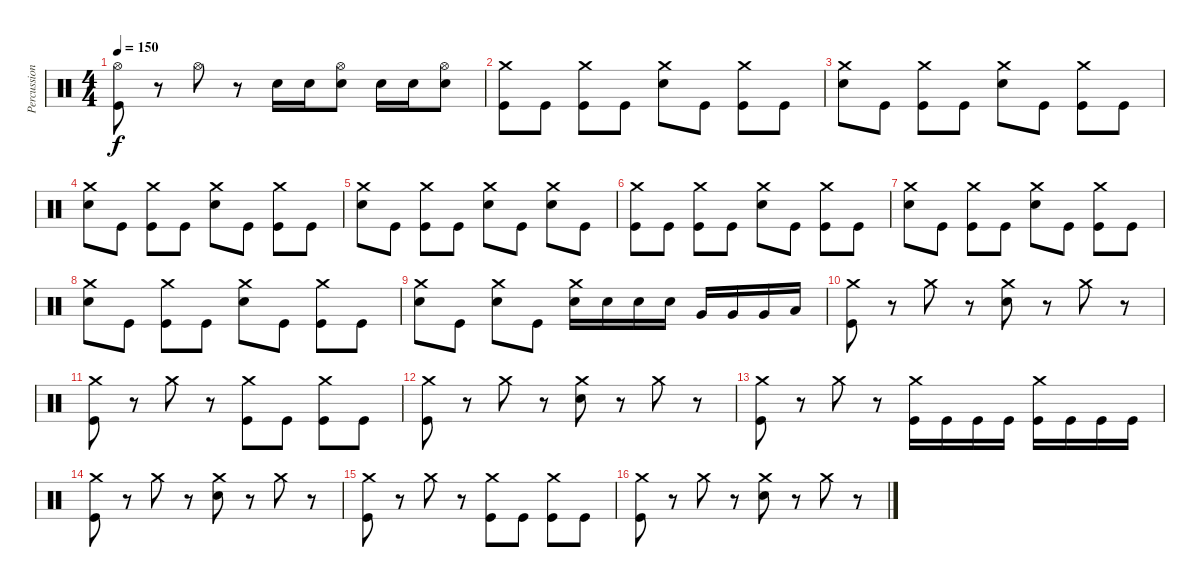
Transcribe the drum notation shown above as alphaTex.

\track ("Percussion" "Percussion") {instrument percussion}
\staff {score}
\articulation defaults
\ts (4 4)
\tempo 150
\clef neutral
\ks c
("Hi-Hat (open)" "Kick (hit)").8{dy f} r.8 "Hi-Hat (open)".8 r.8 "Snare (hit) 2".16 "Snare (hit) 2".16 ("Hi-Hat (open)" "Snare (hit) 2").8 "Snare (hit) 2".16 "Snare (hit) 2".16 ("Hi-Hat (open)" "Snare (hit) 2").8 |
("Crash medium (hit)" "Kick (hit)").8 "Kick (hit)".8 ("Crash medium (hit)" "Kick (hit)").8 "Kick (hit)".8 ("Crash medium (hit)" "Snare (hit) 2").8 "Kick (hit)".8 ("Crash medium (hit)" "Kick (hit)").8 "Kick (hit)".8 |
("Crash medium (hit)" "Snare (hit) 2").8 "Kick (hit)".8 ("Crash medium (hit)" "Kick (hit)").8 "Kick (hit)".8 ("Crash medium (hit)" "Snare (hit) 2").8 "Kick (hit)".8 ("Crash medium (hit)" "Kick (hit)").8 "Kick (hit)".8 |
("Crash medium (hit)" "Snare (hit) 2").8 "Kick (hit)".8 ("Crash medium (hit)" "Kick (hit)").8 "Kick (hit)".8 ("Crash medium (hit)" "Snare (hit) 2").8 "Kick (hit)".8 ("Crash medium (hit)" "Kick (hit)").8 "Kick (hit)".8 |
("Crash medium (hit)" "Snare (hit) 2").8 "Kick (hit)".8 ("Crash medium (hit)" "Kick (hit)").8 "Kick (hit)".8 ("Crash medium (hit)" "Snare (hit) 2").8 "Kick (hit)".8 ("Crash medium (hit)" "Snare (hit) 2").8 "Kick (hit)".8 |
("Crash medium (hit)" "Kick (hit)").8 "Kick (hit)".8 ("Crash medium (hit)" "Kick (hit)").8 "Kick (hit)".8 ("Crash medium (hit)" "Snare (hit) 2").8 "Kick (hit)".8 ("Crash medium (hit)" "Kick (hit)").8 "Kick (hit)".8 |
("Crash medium (hit)" "Snare (hit) 2").8 "Kick (hit)".8 ("Crash medium (hit)" "Kick (hit)").8 "Kick (hit)".8 ("Crash medium (hit)" "Snare (hit) 2").8 "Kick (hit)".8 ("Crash medium (hit)" "Kick (hit)").8 "Kick (hit)".8 |
("Crash medium (hit)" "Snare (hit) 2").8 "Kick (hit)".8 ("Crash medium (hit)" "Kick (hit)").8 "Kick (hit)".8 ("Crash medium (hit)" "Snare (hit) 2").8 "Kick (hit)".8 ("Crash medium (hit)" "Kick (hit)").8 "Kick (hit)".8 |
("Crash medium (hit)" "Snare (hit) 2").8 "Kick (hit)".8 ("Crash medium (hit)" "Snare (hit) 2").8 "Kick (hit)".8 ("Crash medium (hit)" "Snare (hit) 2").16 "Snare (hit) 2".16 "Snare (hit) 2".16 "Snare (hit) 2".16 "Very Low Tom (hit)".16 "Very Low Tom (hit)".16 "Very Low Tom (hit)".16 "Low Floor Tom (hit)".16 |
("Crash medium (hit)" "Kick (hit)").8 r.8 "Crash medium (hit)".8 r.8 ("Crash medium (hit)" "Snare (hit) 2").8 r.8 "Crash medium (hit)".8 r.8 |
("Crash medium (hit)" "Kick (hit)").8 r.8 "Crash medium (hit)".8 r.8 ("Crash medium (hit)" "Kick (hit)").8 "Kick (hit)".8 ("Crash medium (hit)" "Kick (hit)").8 "Kick (hit)".8 |
("Crash medium (hit)" "Kick (hit)").8 r.8 "Crash medium (hit)".8 r.8 ("Crash medium (hit)" "Snare (hit) 2").8 r.8 "Crash medium (hit)".8 r.8 |
("Crash medium (hit)" "Kick (hit)").8 r.8 "Crash medium (hit)".8 r.8 ("Crash medium (hit)" "Kick (hit)").16 "Kick (hit)".16 "Kick (hit)".16 "Kick (hit)".16 ("Crash medium (hit)" "Kick (hit)").16 "Kick (hit)".16 "Kick (hit)".16 "Kick (hit)".16 |
("Crash medium (hit)" "Kick (hit)").8 r.8 "Crash medium (hit)".8 r.8 ("Crash medium (hit)" "Snare (hit) 2").8 r.8 "Crash medium (hit)".8 r.8 |
("Crash medium (hit)" "Kick (hit)").8 r.8 "Crash medium (hit)".8 r.8 ("Crash medium (hit)" "Kick (hit)").8 "Kick (hit)".8 ("Crash medium (hit)" "Kick (hit)").8 "Kick (hit)".8 |
("Crash medium (hit)" "Kick (hit)").8 r.8 "Crash medium (hit)".8 r.8 ("Crash medium (hit)" "Snare (hit) 2").8 r.8 "Crash medium (hit)".8 r.8
